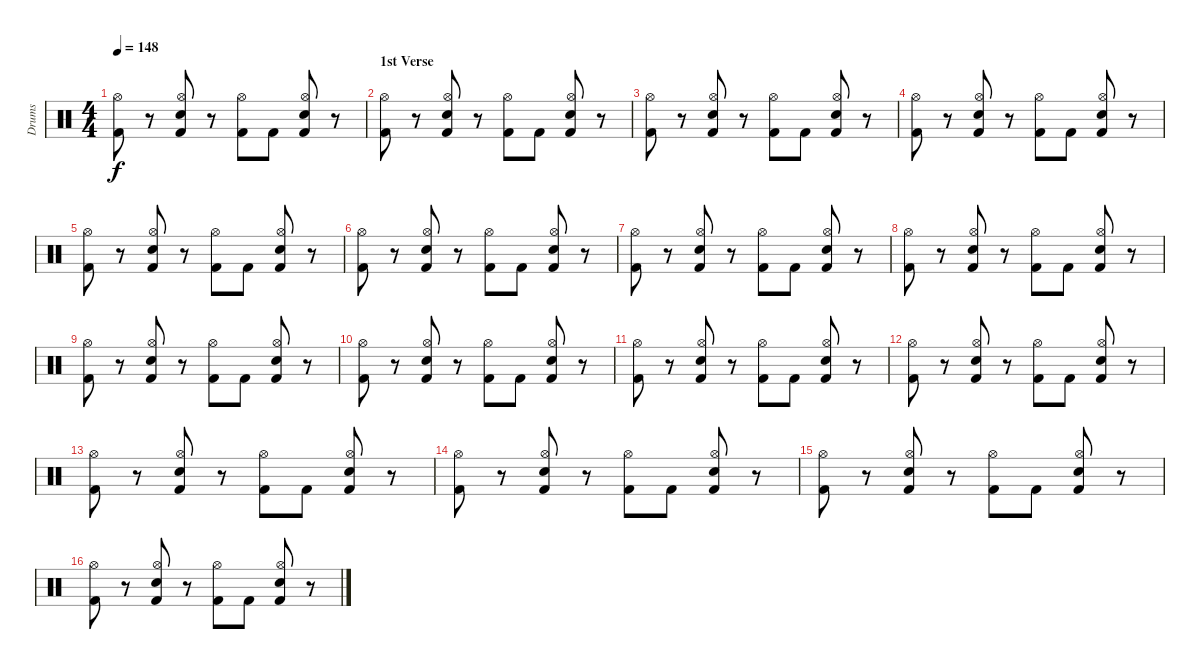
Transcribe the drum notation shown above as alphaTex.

\track ("Drums" "Drums") {instrument percussion}
\staff {score}
\articulation defaults
\ts (4 4)
\tempo 148
\clef neutral
\ks c
("Kick (hit) 2" "Hi-Hat (open)").8{dy f} r.8 ("Kick (hit) 2" "Electric Snare (hit)" "Hi-Hat (open)").8 r.8 ("Kick (hit) 2" "Hi-Hat (open)").8 "Kick (hit) 2".8 ("Kick (hit) 2" "Electric Snare (hit)" "Hi-Hat (open)").8 r.8 |
\section ("" "1st Verse")
("Kick (hit) 2" "Hi-Hat (open)").8 r.8 ("Kick (hit) 2" "Electric Snare (hit)" "Hi-Hat (open)").8 r.8 ("Kick (hit) 2" "Hi-Hat (open)").8 "Kick (hit) 2".8 ("Kick (hit) 2" "Electric Snare (hit)" "Hi-Hat (open)").8 r.8 |
("Kick (hit) 2" "Hi-Hat (open)").8 r.8 ("Kick (hit) 2" "Electric Snare (hit)" "Hi-Hat (open)").8 r.8 ("Kick (hit) 2" "Hi-Hat (open)").8 "Kick (hit) 2".8 ("Kick (hit) 2" "Electric Snare (hit)" "Hi-Hat (open)").8 r.8 |
("Kick (hit) 2" "Hi-Hat (open)").8 r.8 ("Kick (hit) 2" "Electric Snare (hit)" "Hi-Hat (open)").8 r.8 ("Kick (hit) 2" "Hi-Hat (open)").8 "Kick (hit) 2".8 ("Kick (hit) 2" "Electric Snare (hit)" "Hi-Hat (open)").8 r.8 |
("Kick (hit) 2" "Hi-Hat (open)").8 r.8 ("Kick (hit) 2" "Electric Snare (hit)" "Hi-Hat (open)").8 r.8 ("Kick (hit) 2" "Hi-Hat (open)").8 "Kick (hit) 2".8 ("Kick (hit) 2" "Electric Snare (hit)" "Hi-Hat (open)").8 r.8 |
("Kick (hit) 2" "Hi-Hat (open)").8 r.8 ("Kick (hit) 2" "Electric Snare (hit)" "Hi-Hat (open)").8 r.8 ("Kick (hit) 2" "Hi-Hat (open)").8 "Kick (hit) 2".8 ("Kick (hit) 2" "Electric Snare (hit)" "Hi-Hat (open)").8 r.8 |
("Kick (hit) 2" "Hi-Hat (open)").8 r.8 ("Kick (hit) 2" "Electric Snare (hit)" "Hi-Hat (open)").8 r.8 ("Kick (hit) 2" "Hi-Hat (open)").8 "Kick (hit) 2".8 ("Kick (hit) 2" "Electric Snare (hit)" "Hi-Hat (open)").8 r.8 |
("Kick (hit) 2" "Hi-Hat (open)").8 r.8 ("Kick (hit) 2" "Electric Snare (hit)" "Hi-Hat (open)").8 r.8 ("Kick (hit) 2" "Hi-Hat (open)").8 "Kick (hit) 2".8 ("Kick (hit) 2" "Electric Snare (hit)" "Hi-Hat (open)").8 r.8 |
("Kick (hit) 2" "Hi-Hat (open)").8 r.8 ("Kick (hit) 2" "Electric Snare (hit)" "Hi-Hat (open)").8 r.8 ("Kick (hit) 2" "Hi-Hat (open)").8 "Kick (hit) 2".8 ("Kick (hit) 2" "Electric Snare (hit)" "Hi-Hat (open)").8 r.8 |
("Kick (hit) 2" "Hi-Hat (open)").8 r.8 ("Kick (hit) 2" "Electric Snare (hit)" "Hi-Hat (open)").8 r.8 ("Kick (hit) 2" "Hi-Hat (open)").8 "Kick (hit) 2".8 ("Kick (hit) 2" "Electric Snare (hit)" "Hi-Hat (open)").8 r.8 |
("Kick (hit) 2" "Hi-Hat (open)").8 r.8 ("Kick (hit) 2" "Electric Snare (hit)" "Hi-Hat (open)").8 r.8 ("Kick (hit) 2" "Hi-Hat (open)").8 "Kick (hit) 2".8 ("Kick (hit) 2" "Electric Snare (hit)" "Hi-Hat (open)").8 r.8 |
("Kick (hit) 2" "Hi-Hat (open)").8 r.8 ("Kick (hit) 2" "Electric Snare (hit)" "Hi-Hat (open)").8 r.8 ("Kick (hit) 2" "Hi-Hat (open)").8 "Kick (hit) 2".8 ("Kick (hit) 2" "Electric Snare (hit)" "Hi-Hat (open)").8 r.8 |
("Kick (hit) 2" "Hi-Hat (open)").8 r.8 ("Kick (hit) 2" "Electric Snare (hit)" "Hi-Hat (open)").8 r.8 ("Kick (hit) 2" "Hi-Hat (open)").8 "Kick (hit) 2".8 ("Kick (hit) 2" "Electric Snare (hit)" "Hi-Hat (open)").8 r.8 |
("Kick (hit) 2" "Hi-Hat (open)").8 r.8 ("Kick (hit) 2" "Electric Snare (hit)" "Hi-Hat (open)").8 r.8 ("Kick (hit) 2" "Hi-Hat (open)").8 "Kick (hit) 2".8 ("Kick (hit) 2" "Electric Snare (hit)" "Hi-Hat (open)").8 r.8 |
("Kick (hit) 2" "Hi-Hat (open)").8 r.8 ("Kick (hit) 2" "Electric Snare (hit)" "Hi-Hat (open)").8 r.8 ("Kick (hit) 2" "Hi-Hat (open)").8 "Kick (hit) 2".8 ("Kick (hit) 2" "Electric Snare (hit)" "Hi-Hat (open)").8 r.8 |
("Kick (hit) 2" "Hi-Hat (open)").8 r.8 ("Kick (hit) 2" "Electric Snare (hit)" "Hi-Hat (open)").8 r.8 ("Kick (hit) 2" "Hi-Hat (open)").8 "Kick (hit) 2".8 ("Kick (hit) 2" "Electric Snare (hit)" "Hi-Hat (open)").8 r.8
